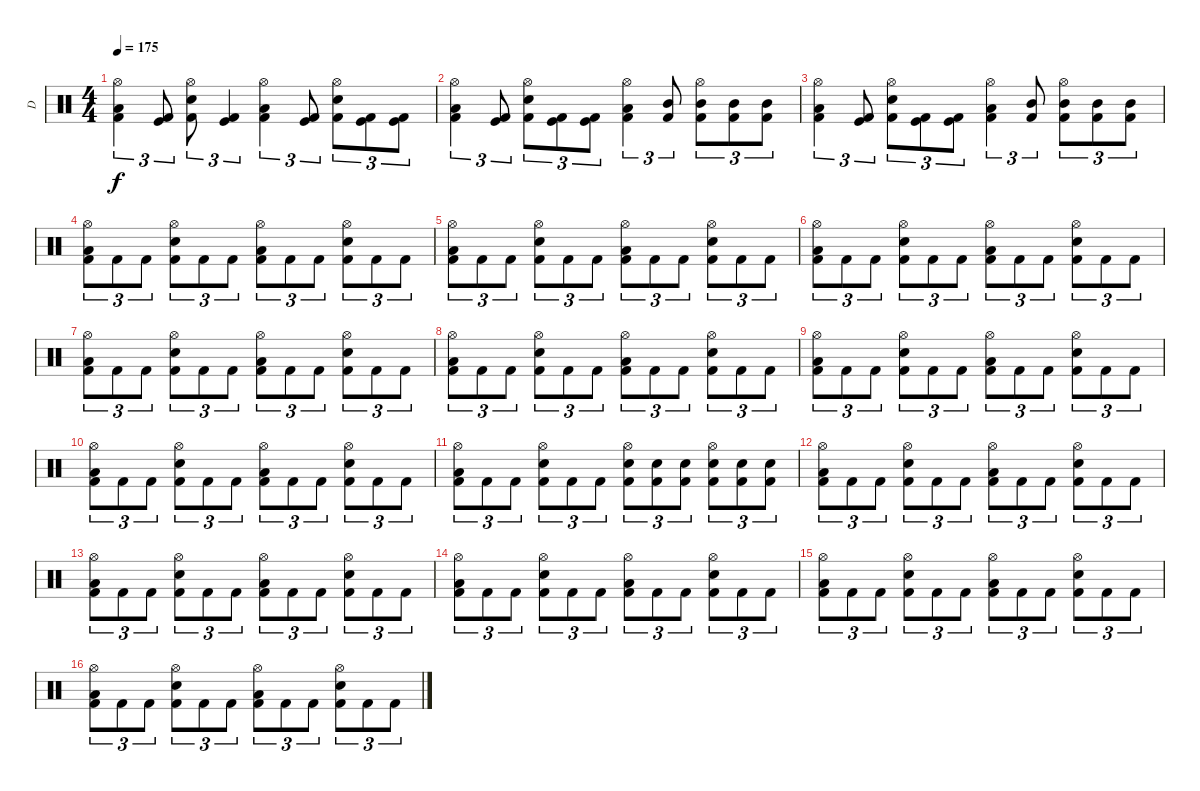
\track ("D" "D") {instrument percussion}
\staff {score}
\articulation defaults
\ts (4 4)
\tempo 175
\clef neutral
\ks c
("Hi-Hat (open)" "Low Floor Tom (hit)" "Kick (hit) 2").4{tu (3 2) dy f} ("Kick (hit)" "Kick (hit) 2").8{tu (3 2)} ("Hi-Hat (open)" "Electric Snare (hit)" "Kick (hit) 2").8{tu (3 2)} ("Kick (hit)" "Kick (hit) 2").4{tu (3 2)} ("Hi-Hat (open)" "Low Floor Tom (hit)" "Kick (hit) 2").4{tu (3 2)} ("Kick (hit)" "Kick (hit) 2").8{tu (3 2)} ("Hi-Hat (open)" "Snare (hit) 2" "Kick (hit) 2").8{tu (3 2)} ("Kick (hit)" "Kick (hit) 2").8{tu (3 2)} ("Kick (hit)" "Kick (hit) 2").8{tu (3 2)} |
("Hi-Hat (open)" "Low Floor Tom (hit)" "Kick (hit) 2").4{tu (3 2)} ("Kick (hit)" "Kick (hit) 2").8{tu (3 2)} ("Hi-Hat (open)" "Electric Snare (hit)" "Kick (hit) 2").8{tu (3 2)} ("Kick (hit)" "Kick (hit) 2").8{tu (3 2)} ("Kick (hit)" "Kick (hit) 2").8{tu (3 2)} ("Hi-Hat (open)" "Low Floor Tom (hit)" "Kick (hit) 2").4{tu (3 2)} ("Mid Tom (hit)" "Kick (hit) 2").8{tu (3 2)} ("Hi-Hat (open)" "Mid Tom (hit)" "Kick (hit) 2").8{tu (3 2)} ("Mid Tom (hit)" "Kick (hit) 2").8{tu (3 2)} ("Mid Tom (hit)" "Kick (hit) 2").8{tu (3 2)} |
("Hi-Hat (open)" "Low Floor Tom (hit)" "Kick (hit) 2").4{tu (3 2)} ("Kick (hit)" "Kick (hit) 2").8{tu (3 2)} ("Hi-Hat (open)" "Electric Snare (hit)" "Kick (hit) 2").8{tu (3 2)} ("Kick (hit)" "Kick (hit) 2").8{tu (3 2)} ("Kick (hit)" "Kick (hit) 2").8{tu (3 2)} ("Hi-Hat (open)" "Low Floor Tom (hit)" "Kick (hit) 2").4{tu (3 2)} ("Mid Tom (hit)" "Kick (hit) 2").8{tu (3 2)} ("Hi-Hat (open)" "Mid Tom (hit)" "Kick (hit) 2").8{tu (3 2)} ("Mid Tom (hit)" "Kick (hit) 2").8{tu (3 2)} ("Mid Tom (hit)" "Kick (hit) 2").8{tu (3 2)} |
("Hi-Hat (open)" "Low Floor Tom (hit)" "Kick (hit) 2").8{tu (3 2)} "Kick (hit) 2".8{tu (3 2)} "Kick (hit) 2".8{tu (3 2)} ("Hi-Hat (open)" "Electric Snare (hit)" "Kick (hit) 2").8{tu (3 2)} "Kick (hit) 2".8{tu (3 2)} "Kick (hit) 2".8{tu (3 2)} ("Hi-Hat (open)" "Low Floor Tom (hit)" "Kick (hit) 2").8{tu (3 2)} "Kick (hit) 2".8{tu (3 2)} "Kick (hit) 2".8{tu (3 2)} ("Hi-Hat (open)" "Electric Snare (hit)" "Kick (hit) 2").8{tu (3 2)} "Kick (hit) 2".8{tu (3 2)} "Kick (hit) 2".8{tu (3 2)} |
("Hi-Hat (open)" "Low Floor Tom (hit)" "Kick (hit) 2").8{tu (3 2)} "Kick (hit) 2".8{tu (3 2)} "Kick (hit) 2".8{tu (3 2)} ("Hi-Hat (open)" "Electric Snare (hit)" "Kick (hit) 2").8{tu (3 2)} "Kick (hit) 2".8{tu (3 2)} "Kick (hit) 2".8{tu (3 2)} ("Hi-Hat (open)" "Low Floor Tom (hit)" "Kick (hit) 2").8{tu (3 2)} "Kick (hit) 2".8{tu (3 2)} "Kick (hit) 2".8{tu (3 2)} ("Hi-Hat (open)" "Electric Snare (hit)" "Kick (hit) 2").8{tu (3 2)} "Kick (hit) 2".8{tu (3 2)} "Kick (hit) 2".8{tu (3 2)} |
("Hi-Hat (open)" "Low Floor Tom (hit)" "Kick (hit) 2").8{tu (3 2)} "Kick (hit) 2".8{tu (3 2)} "Kick (hit) 2".8{tu (3 2)} ("Hi-Hat (open)" "Electric Snare (hit)" "Kick (hit) 2").8{tu (3 2)} "Kick (hit) 2".8{tu (3 2)} "Kick (hit) 2".8{tu (3 2)} ("Hi-Hat (open)" "Low Floor Tom (hit)" "Kick (hit) 2").8{tu (3 2)} "Kick (hit) 2".8{tu (3 2)} "Kick (hit) 2".8{tu (3 2)} ("Hi-Hat (open)" "Electric Snare (hit)" "Kick (hit) 2").8{tu (3 2)} "Kick (hit) 2".8{tu (3 2)} "Kick (hit) 2".8{tu (3 2)} |
("Hi-Hat (open)" "Low Floor Tom (hit)" "Kick (hit) 2").8{tu (3 2)} "Kick (hit) 2".8{tu (3 2)} "Kick (hit) 2".8{tu (3 2)} ("Hi-Hat (open)" "Electric Snare (hit)" "Kick (hit) 2").8{tu (3 2)} "Kick (hit) 2".8{tu (3 2)} "Kick (hit) 2".8{tu (3 2)} ("Hi-Hat (open)" "Low Floor Tom (hit)" "Kick (hit) 2").8{tu (3 2)} "Kick (hit) 2".8{tu (3 2)} "Kick (hit) 2".8{tu (3 2)} ("Hi-Hat (open)" "Electric Snare (hit)" "Kick (hit) 2").8{tu (3 2)} "Kick (hit) 2".8{tu (3 2)} "Kick (hit) 2".8{tu (3 2)} |
("Hi-Hat (open)" "Low Floor Tom (hit)" "Kick (hit) 2").8{tu (3 2)} "Kick (hit) 2".8{tu (3 2)} "Kick (hit) 2".8{tu (3 2)} ("Hi-Hat (open)" "Electric Snare (hit)" "Kick (hit) 2").8{tu (3 2)} "Kick (hit) 2".8{tu (3 2)} "Kick (hit) 2".8{tu (3 2)} ("Hi-Hat (open)" "Low Floor Tom (hit)" "Kick (hit) 2").8{tu (3 2)} "Kick (hit) 2".8{tu (3 2)} "Kick (hit) 2".8{tu (3 2)} ("Hi-Hat (open)" "Electric Snare (hit)" "Kick (hit) 2").8{tu (3 2)} "Kick (hit) 2".8{tu (3 2)} "Kick (hit) 2".8{tu (3 2)} |
("Hi-Hat (open)" "Low Floor Tom (hit)" "Kick (hit) 2").8{tu (3 2)} "Kick (hit) 2".8{tu (3 2)} "Kick (hit) 2".8{tu (3 2)} ("Hi-Hat (open)" "Electric Snare (hit)" "Kick (hit) 2").8{tu (3 2)} "Kick (hit) 2".8{tu (3 2)} "Kick (hit) 2".8{tu (3 2)} ("Hi-Hat (open)" "Low Floor Tom (hit)" "Kick (hit) 2").8{tu (3 2)} "Kick (hit) 2".8{tu (3 2)} "Kick (hit) 2".8{tu (3 2)} ("Hi-Hat (open)" "Electric Snare (hit)" "Kick (hit) 2").8{tu (3 2)} "Kick (hit) 2".8{tu (3 2)} "Kick (hit) 2".8{tu (3 2)} |
("Hi-Hat (open)" "Low Floor Tom (hit)" "Kick (hit) 2").8{tu (3 2)} "Kick (hit) 2".8{tu (3 2)} "Kick (hit) 2".8{tu (3 2)} ("Hi-Hat (open)" "Electric Snare (hit)" "Kick (hit) 2").8{tu (3 2)} "Kick (hit) 2".8{tu (3 2)} "Kick (hit) 2".8{tu (3 2)} ("Hi-Hat (open)" "Low Floor Tom (hit)" "Kick (hit) 2").8{tu (3 2)} "Kick (hit) 2".8{tu (3 2)} "Kick (hit) 2".8{tu (3 2)} ("Hi-Hat (open)" "Electric Snare (hit)" "Kick (hit) 2").8{tu (3 2)} "Kick (hit) 2".8{tu (3 2)} "Kick (hit) 2".8{tu (3 2)} |
("Hi-Hat (open)" "Low Floor Tom (hit)" "Kick (hit) 2").8{tu (3 2)} "Kick (hit) 2".8{tu (3 2)} "Kick (hit) 2".8{tu (3 2)} ("Hi-Hat (open)" "Electric Snare (hit)" "Kick (hit) 2").8{tu (3 2)} "Kick (hit) 2".8{tu (3 2)} "Kick (hit) 2".8{tu (3 2)} ("Hi-Hat (open)" "Electric Snare (hit)" "Kick (hit) 2").8{tu (3 2)} ("Electric Snare (hit)" "Kick (hit) 2").8{tu (3 2)} ("Snare (hit) 2" "Kick (hit) 2").8{tu (3 2)} ("Hi-Hat (open)" "Electric Snare (hit)" "Kick (hit) 2").8{tu (3 2)} ("Electric Snare (hit)" "Kick (hit) 2").8{tu (3 2)} ("Electric Snare (hit)" "Kick (hit) 2").8{tu (3 2)} |
("Hi-Hat (open)" "Low Floor Tom (hit)" "Kick (hit) 2").8{tu (3 2)} "Kick (hit) 2".8{tu (3 2)} "Kick (hit) 2".8{tu (3 2)} ("Hi-Hat (open)" "Electric Snare (hit)" "Kick (hit) 2").8{tu (3 2)} "Kick (hit) 2".8{tu (3 2)} "Kick (hit) 2".8{tu (3 2)} ("Hi-Hat (open)" "Low Floor Tom (hit)" "Kick (hit) 2").8{tu (3 2)} "Kick (hit) 2".8{tu (3 2)} "Kick (hit) 2".8{tu (3 2)} ("Hi-Hat (open)" "Electric Snare (hit)" "Kick (hit) 2").8{tu (3 2)} "Kick (hit) 2".8{tu (3 2)} "Kick (hit) 2".8{tu (3 2)} |
("Hi-Hat (open)" "Low Floor Tom (hit)" "Kick (hit) 2").8{tu (3 2)} "Kick (hit) 2".8{tu (3 2)} "Kick (hit) 2".8{tu (3 2)} ("Hi-Hat (open)" "Electric Snare (hit)" "Kick (hit) 2").8{tu (3 2)} "Kick (hit) 2".8{tu (3 2)} "Kick (hit) 2".8{tu (3 2)} ("Hi-Hat (open)" "Low Floor Tom (hit)" "Kick (hit) 2").8{tu (3 2)} "Kick (hit) 2".8{tu (3 2)} "Kick (hit) 2".8{tu (3 2)} ("Hi-Hat (open)" "Electric Snare (hit)" "Kick (hit) 2").8{tu (3 2)} "Kick (hit) 2".8{tu (3 2)} "Kick (hit) 2".8{tu (3 2)} |
("Hi-Hat (open)" "Low Floor Tom (hit)" "Kick (hit) 2").8{tu (3 2)} "Kick (hit) 2".8{tu (3 2)} "Kick (hit) 2".8{tu (3 2)} ("Hi-Hat (open)" "Electric Snare (hit)" "Kick (hit) 2").8{tu (3 2)} "Kick (hit) 2".8{tu (3 2)} "Kick (hit) 2".8{tu (3 2)} ("Hi-Hat (open)" "Low Floor Tom (hit)" "Kick (hit) 2").8{tu (3 2)} "Kick (hit) 2".8{tu (3 2)} "Kick (hit) 2".8{tu (3 2)} ("Hi-Hat (open)" "Electric Snare (hit)" "Kick (hit) 2").8{tu (3 2)} "Kick (hit) 2".8{tu (3 2)} "Kick (hit) 2".8{tu (3 2)} |
("Hi-Hat (open)" "Low Floor Tom (hit)" "Kick (hit) 2").8{tu (3 2)} "Kick (hit) 2".8{tu (3 2)} "Kick (hit) 2".8{tu (3 2)} ("Hi-Hat (open)" "Electric Snare (hit)" "Kick (hit) 2").8{tu (3 2)} "Kick (hit) 2".8{tu (3 2)} "Kick (hit) 2".8{tu (3 2)} ("Hi-Hat (open)" "Low Floor Tom (hit)" "Kick (hit) 2").8{tu (3 2)} "Kick (hit) 2".8{tu (3 2)} "Kick (hit) 2".8{tu (3 2)} ("Hi-Hat (open)" "Electric Snare (hit)" "Kick (hit) 2").8{tu (3 2)} "Kick (hit) 2".8{tu (3 2)} "Kick (hit) 2".8{tu (3 2)} |
("Hi-Hat (open)" "Low Floor Tom (hit)" "Kick (hit) 2").8{tu (3 2)} "Kick (hit) 2".8{tu (3 2)} "Kick (hit) 2".8{tu (3 2)} ("Hi-Hat (open)" "Electric Snare (hit)" "Kick (hit) 2").8{tu (3 2)} "Kick (hit) 2".8{tu (3 2)} "Kick (hit) 2".8{tu (3 2)} ("Hi-Hat (open)" "Low Floor Tom (hit)" "Kick (hit) 2").8{tu (3 2)} "Kick (hit) 2".8{tu (3 2)} "Kick (hit) 2".8{tu (3 2)} ("Hi-Hat (open)" "Electric Snare (hit)" "Kick (hit) 2").8{tu (3 2)} "Kick (hit) 2".8{tu (3 2)} "Kick (hit) 2".8{tu (3 2)}
